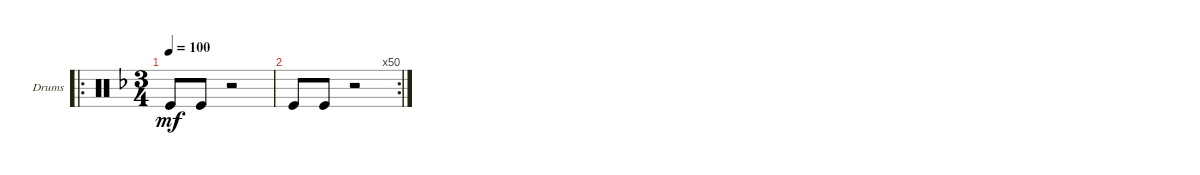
\defaultSystemsLayout 4
\bracketExtendMode groupsimilarinstruments
\firstSystemTrackNameOrientation horizontal
\otherSystemsTrackNameOrientation horizontal
\track ("[Eli] Drumkit" "Drums") {instrument percussion}
\staff {score}
\articulation defaults
\ro
\ts (3 4)
\tempo 100
\clef neutral
\ks dminor "Kick (hit)".8{dy mf} "Kick (hit)".8
r.2 |
\rc 50 "Kick (hit)".8 "Kick (hit)".8
r.2
